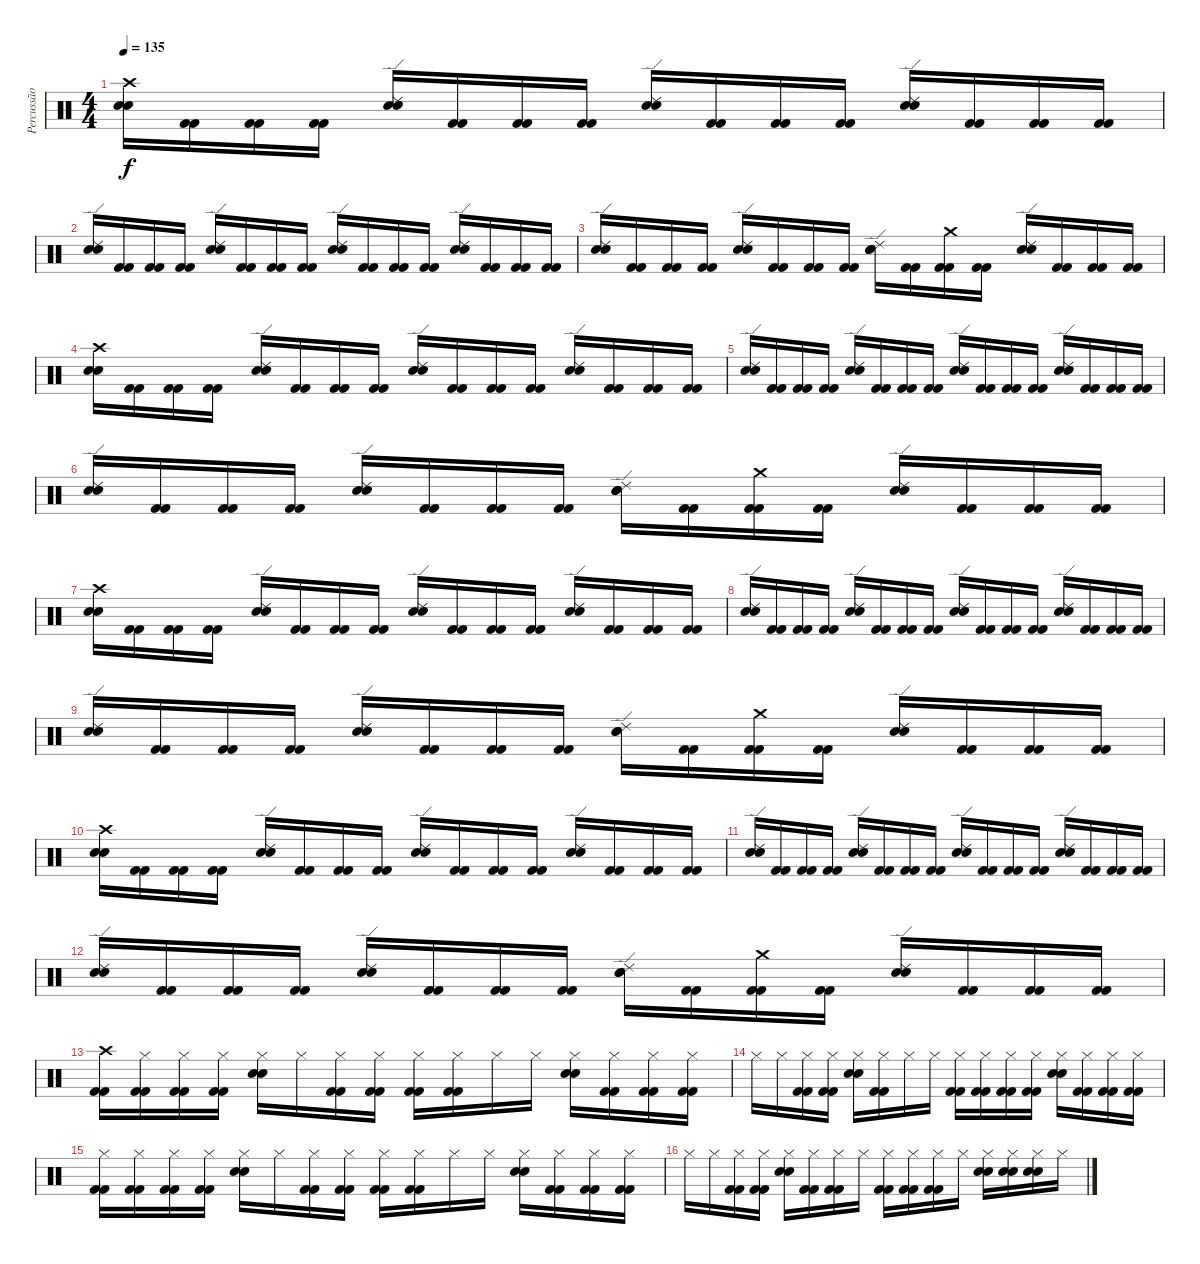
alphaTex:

\track ("Percussão" "Percussão") {instrument percussion}
\staff {score}
\articulation defaults
\ts (4 4)
\tempo 135
\clef neutral
\ks c
("Crash high (hit)" "Electric Snare (hit)" "Electric Snare (hit)").16{dy f} ("Kick (hit) 2" "Kick (hit) 2").16 ("Kick (hit) 2" "Kick (hit) 2").16 ("Kick (hit) 2" "Kick (hit) 2").16 ("Ride (edge) 2" "Electric Snare (hit)" "Electric Snare (hit)").16 ("Kick (hit) 2" "Kick (hit) 2").16 ("Kick (hit) 2" "Kick (hit) 2").16 ("Kick (hit) 2" "Kick (hit) 2").16 ("Ride (edge) 2" "Electric Snare (hit)" "Electric Snare (hit)").16 ("Kick (hit) 2" "Kick (hit) 2").16 ("Kick (hit) 2" "Kick (hit) 2").16 ("Kick (hit) 2" "Kick (hit) 2").16 ("Ride (edge) 2" "Electric Snare (hit)" "Electric Snare (hit)").16 ("Kick (hit) 2" "Kick (hit) 2").16 ("Kick (hit) 2" "Kick (hit) 2").16 ("Kick (hit) 2" "Kick (hit) 2").16 |
("Ride (edge) 2" "Electric Snare (hit)" "Electric Snare (hit)").16 ("Kick (hit) 2" "Kick (hit) 2").16 ("Kick (hit) 2" "Kick (hit) 2").16 ("Kick (hit) 2" "Kick (hit) 2").16 ("Ride (edge) 2" "Electric Snare (hit)" "Electric Snare (hit)").16 ("Kick (hit) 2" "Kick (hit) 2").16 ("Kick (hit) 2" "Kick (hit) 2").16 ("Kick (hit) 2" "Kick (hit) 2").16 ("Ride (edge) 2" "Electric Snare (hit)" "Electric Snare (hit)").16 ("Kick (hit) 2" "Kick (hit) 2").16 ("Kick (hit) 2" "Kick (hit) 2").16 ("Kick (hit) 2" "Kick (hit) 2").16 ("Ride (edge) 2" "Electric Snare (hit)" "Electric Snare (hit)").16 ("Kick (hit) 2" "Kick (hit) 2").16 ("Kick (hit) 2" "Kick (hit) 2").16 ("Kick (hit) 2" "Kick (hit) 2").16 |
("Ride (edge) 2" "Electric Snare (hit)" "Electric Snare (hit)").16 ("Kick (hit) 2" "Kick (hit) 2").16 ("Kick (hit) 2" "Kick (hit) 2").16 ("Kick (hit) 2" "Kick (hit) 2").16 ("Ride (edge) 2" "Electric Snare (hit)" "Electric Snare (hit)").16 ("Kick (hit) 2" "Kick (hit) 2").16 ("Kick (hit) 2" "Kick (hit) 2").16 ("Kick (hit) 2" "Kick (hit) 2").16 ("Ride (edge) 2" "Electric Snare (hit)" "Electric Snare (hit)").16 ("Kick (hit) 2" "Kick (hit) 2").16 ("Crash medium (hit)" "Kick (hit) 2" "Kick (hit) 2").16 ("Kick (hit) 2" "Kick (hit) 2").16 ("Ride (edge) 2" "Electric Snare (hit)" "Electric Snare (hit)").16 ("Kick (hit) 2" "Kick (hit) 2").16 ("Kick (hit) 2" "Kick (hit) 2").16 ("Kick (hit) 2" "Kick (hit) 2").16 |
("Crash high (hit)" "Electric Snare (hit)" "Electric Snare (hit)").16 ("Kick (hit) 2" "Kick (hit) 2").16 ("Kick (hit) 2" "Kick (hit) 2").16 ("Kick (hit) 2" "Kick (hit) 2").16 ("Ride (edge) 2" "Electric Snare (hit)" "Electric Snare (hit)").16 ("Kick (hit) 2" "Kick (hit) 2").16 ("Kick (hit) 2" "Kick (hit) 2").16 ("Kick (hit) 2" "Kick (hit) 2").16 ("Ride (edge) 2" "Electric Snare (hit)" "Electric Snare (hit)").16 ("Kick (hit) 2" "Kick (hit) 2").16 ("Kick (hit) 2" "Kick (hit) 2").16 ("Kick (hit) 2" "Kick (hit) 2").16 ("Ride (edge) 2" "Electric Snare (hit)" "Electric Snare (hit)").16 ("Kick (hit) 2" "Kick (hit) 2").16 ("Kick (hit) 2" "Kick (hit) 2").16 ("Kick (hit) 2" "Kick (hit) 2").16 |
("Ride (edge) 2" "Electric Snare (hit)" "Electric Snare (hit)").16 ("Kick (hit) 2" "Kick (hit) 2").16 ("Kick (hit) 2" "Kick (hit) 2").16 ("Kick (hit) 2" "Kick (hit) 2").16 ("Ride (edge) 2" "Electric Snare (hit)" "Electric Snare (hit)").16 ("Kick (hit) 2" "Kick (hit) 2").16 ("Kick (hit) 2" "Kick (hit) 2").16 ("Kick (hit) 2" "Kick (hit) 2").16 ("Ride (edge) 2" "Electric Snare (hit)" "Electric Snare (hit)").16 ("Kick (hit) 2" "Kick (hit) 2").16 ("Kick (hit) 2" "Kick (hit) 2").16 ("Kick (hit) 2" "Kick (hit) 2").16 ("Ride (edge) 2" "Electric Snare (hit)" "Electric Snare (hit)").16 ("Kick (hit) 2" "Kick (hit) 2").16 ("Kick (hit) 2" "Kick (hit) 2").16 ("Kick (hit) 2" "Kick (hit) 2").16 |
("Ride (edge) 2" "Electric Snare (hit)" "Electric Snare (hit)").16 ("Kick (hit) 2" "Kick (hit) 2").16 ("Kick (hit) 2" "Kick (hit) 2").16 ("Kick (hit) 2" "Kick (hit) 2").16 ("Ride (edge) 2" "Electric Snare (hit)" "Electric Snare (hit)").16 ("Kick (hit) 2" "Kick (hit) 2").16 ("Kick (hit) 2" "Kick (hit) 2").16 ("Kick (hit) 2" "Kick (hit) 2").16 ("Ride (edge) 2" "Electric Snare (hit)" "Electric Snare (hit)").16 ("Kick (hit) 2" "Kick (hit) 2").16 ("Crash medium (hit)" "Kick (hit) 2" "Kick (hit) 2").16 ("Kick (hit) 2" "Kick (hit) 2").16 ("Ride (edge) 2" "Electric Snare (hit)" "Electric Snare (hit)").16 ("Kick (hit) 2" "Kick (hit) 2").16 ("Kick (hit) 2" "Kick (hit) 2").16 ("Kick (hit) 2" "Kick (hit) 2").16 |
("Crash high (hit)" "Electric Snare (hit)" "Electric Snare (hit)").16 ("Kick (hit) 2" "Kick (hit) 2").16 ("Kick (hit) 2" "Kick (hit) 2").16 ("Kick (hit) 2" "Kick (hit) 2").16 ("Ride (edge) 2" "Electric Snare (hit)" "Electric Snare (hit)").16 ("Kick (hit) 2" "Kick (hit) 2").16 ("Kick (hit) 2" "Kick (hit) 2").16 ("Kick (hit) 2" "Kick (hit) 2").16 ("Ride (edge) 2" "Electric Snare (hit)" "Electric Snare (hit)").16 ("Kick (hit) 2" "Kick (hit) 2").16 ("Kick (hit) 2" "Kick (hit) 2").16 ("Kick (hit) 2" "Kick (hit) 2").16 ("Ride (edge) 2" "Electric Snare (hit)" "Electric Snare (hit)").16 ("Kick (hit) 2" "Kick (hit) 2").16 ("Kick (hit) 2" "Kick (hit) 2").16 ("Kick (hit) 2" "Kick (hit) 2").16 |
("Ride (edge) 2" "Electric Snare (hit)" "Electric Snare (hit)").16 ("Kick (hit) 2" "Kick (hit) 2").16 ("Kick (hit) 2" "Kick (hit) 2").16 ("Kick (hit) 2" "Kick (hit) 2").16 ("Ride (edge) 2" "Electric Snare (hit)" "Electric Snare (hit)").16 ("Kick (hit) 2" "Kick (hit) 2").16 ("Kick (hit) 2" "Kick (hit) 2").16 ("Kick (hit) 2" "Kick (hit) 2").16 ("Ride (edge) 2" "Electric Snare (hit)" "Electric Snare (hit)").16 ("Kick (hit) 2" "Kick (hit) 2").16 ("Kick (hit) 2" "Kick (hit) 2").16 ("Kick (hit) 2" "Kick (hit) 2").16 ("Ride (edge) 2" "Electric Snare (hit)" "Electric Snare (hit)").16 ("Kick (hit) 2" "Kick (hit) 2").16 ("Kick (hit) 2" "Kick (hit) 2").16 ("Kick (hit) 2" "Kick (hit) 2").16 |
("Ride (edge) 2" "Electric Snare (hit)" "Electric Snare (hit)").16 ("Kick (hit) 2" "Kick (hit) 2").16 ("Kick (hit) 2" "Kick (hit) 2").16 ("Kick (hit) 2" "Kick (hit) 2").16 ("Ride (edge) 2" "Electric Snare (hit)" "Electric Snare (hit)").16 ("Kick (hit) 2" "Kick (hit) 2").16 ("Kick (hit) 2" "Kick (hit) 2").16 ("Kick (hit) 2" "Kick (hit) 2").16 ("Ride (edge) 2" "Electric Snare (hit)" "Electric Snare (hit)").16 ("Kick (hit) 2" "Kick (hit) 2").16 ("Crash medium (hit)" "Kick (hit) 2" "Kick (hit) 2").16 ("Kick (hit) 2" "Kick (hit) 2").16 ("Ride (edge) 2" "Electric Snare (hit)" "Electric Snare (hit)").16 ("Kick (hit) 2" "Kick (hit) 2").16 ("Kick (hit) 2" "Kick (hit) 2").16 ("Kick (hit) 2" "Kick (hit) 2").16 |
("Crash high (hit)" "Electric Snare (hit)" "Electric Snare (hit)").16 ("Kick (hit) 2" "Kick (hit) 2").16 ("Kick (hit) 2" "Kick (hit) 2").16 ("Kick (hit) 2" "Kick (hit) 2").16 ("Ride (edge) 2" "Electric Snare (hit)" "Electric Snare (hit)").16 ("Kick (hit) 2" "Kick (hit) 2").16 ("Kick (hit) 2" "Kick (hit) 2").16 ("Kick (hit) 2" "Kick (hit) 2").16 ("Ride (edge) 2" "Electric Snare (hit)" "Electric Snare (hit)").16 ("Kick (hit) 2" "Kick (hit) 2").16 ("Kick (hit) 2" "Kick (hit) 2").16 ("Kick (hit) 2" "Kick (hit) 2").16 ("Ride (edge) 2" "Electric Snare (hit)" "Electric Snare (hit)").16 ("Kick (hit) 2" "Kick (hit) 2").16 ("Kick (hit) 2" "Kick (hit) 2").16 ("Kick (hit) 2" "Kick (hit) 2").16 |
("Ride (edge) 2" "Electric Snare (hit)" "Electric Snare (hit)").16 ("Kick (hit) 2" "Kick (hit) 2").16 ("Kick (hit) 2" "Kick (hit) 2").16 ("Kick (hit) 2" "Kick (hit) 2").16 ("Ride (edge) 2" "Electric Snare (hit)" "Electric Snare (hit)").16 ("Kick (hit) 2" "Kick (hit) 2").16 ("Kick (hit) 2" "Kick (hit) 2").16 ("Kick (hit) 2" "Kick (hit) 2").16 ("Ride (edge) 2" "Electric Snare (hit)" "Electric Snare (hit)").16 ("Kick (hit) 2" "Kick (hit) 2").16 ("Kick (hit) 2" "Kick (hit) 2").16 ("Kick (hit) 2" "Kick (hit) 2").16 ("Ride (edge) 2" "Electric Snare (hit)" "Electric Snare (hit)").16 ("Kick (hit) 2" "Kick (hit) 2").16 ("Kick (hit) 2" "Kick (hit) 2").16 ("Kick (hit) 2" "Kick (hit) 2").16 |
("Ride (edge) 2" "Electric Snare (hit)" "Electric Snare (hit)").16 ("Kick (hit) 2" "Kick (hit) 2").16 ("Kick (hit) 2" "Kick (hit) 2").16 ("Kick (hit) 2" "Kick (hit) 2").16 ("Ride (edge) 2" "Electric Snare (hit)" "Electric Snare (hit)").16 ("Kick (hit) 2" "Kick (hit) 2").16 ("Kick (hit) 2" "Kick (hit) 2").16 ("Kick (hit) 2" "Kick (hit) 2").16 ("Ride (edge) 2" "Electric Snare (hit)" "Electric Snare (hit)").16 ("Kick (hit) 2" "Kick (hit) 2").16 ("Crash medium (hit)" "Kick (hit) 2" "Kick (hit) 2").16 ("Kick (hit) 2" "Kick (hit) 2").16 ("Ride (edge) 2" "Electric Snare (hit)" "Electric Snare (hit)").16 ("Kick (hit) 2" "Kick (hit) 2").16 ("Kick (hit) 2" "Kick (hit) 2").16 ("Kick (hit) 2" "Kick (hit) 2").16 |
("Crash high (hit)" "Kick (hit) 2" "Kick (hit) 2").16 ("Hi-Hat (closed)" "Kick (hit) 2" "Kick (hit) 2").16 ("Hi-Hat (closed)" "Kick (hit) 2" "Kick (hit) 2").16 ("Hi-Hat (closed)" "Kick (hit) 2" "Kick (hit) 2").16 ("Hi-Hat (closed)" "Electric Snare (hit)" "Electric Snare (hit)").16 "Hi-Hat (closed)".16 ("Hi-Hat (closed)" "Kick (hit) 2" "Kick (hit) 2").16 ("Hi-Hat (closed)" "Kick (hit) 2" "Kick (hit) 2").16 ("Hi-Hat (closed)" "Kick (hit) 2" "Kick (hit) 2").16 ("Hi-Hat (closed)" "Kick (hit) 2" "Kick (hit) 2").16 "Hi-Hat (closed)".16 "Hi-Hat (closed)".16 ("Hi-Hat (closed)" "Electric Snare (hit)" "Electric Snare (hit)").16 ("Hi-Hat (closed)" "Kick (hit) 2" "Kick (hit) 2").16 ("Hi-Hat (closed)" "Kick (hit) 2" "Kick (hit) 2").16 ("Hi-Hat (closed)" "Kick (hit) 2" "Kick (hit) 2").16 |
"Hi-Hat (closed)".16 "Hi-Hat (closed)".16 ("Hi-Hat (closed)" "Kick (hit) 2" "Kick (hit) 2").16 ("Hi-Hat (closed)" "Kick (hit) 2" "Kick (hit) 2").16 ("Hi-Hat (closed)" "Electric Snare (hit)" "Electric Snare (hit)").16 ("Hi-Hat (closed)" "Kick (hit) 2" "Kick (hit) 2").16 "Hi-Hat (closed)".16 "Hi-Hat (closed)".16 ("Hi-Hat (closed)" "Kick (hit) 2" "Kick (hit) 2").16 ("Hi-Hat (closed)" "Kick (hit) 2" "Kick (hit) 2").16 ("Hi-Hat (closed)" "Kick (hit) 2" "Kick (hit) 2").16 ("Hi-Hat (closed)" "Kick (hit) 2" "Kick (hit) 2").16 ("Hi-Hat (closed)" "Electric Snare (hit)" "Electric Snare (hit)").16 ("Hi-Hat (closed)" "Kick (hit) 2" "Kick (hit) 2").16 ("Hi-Hat (closed)" "Kick (hit) 2" "Kick (hit) 2").16 ("Hi-Hat (closed)" "Kick (hit) 2" "Kick (hit) 2").16 |
("Hi-Hat (closed)" "Kick (hit) 2" "Kick (hit) 2").16 ("Hi-Hat (closed)" "Kick (hit) 2" "Kick (hit) 2").16 ("Hi-Hat (closed)" "Kick (hit) 2" "Kick (hit) 2").16 ("Hi-Hat (closed)" "Kick (hit) 2" "Kick (hit) 2").16 ("Hi-Hat (closed)" "Electric Snare (hit)" "Electric Snare (hit)").16 "Hi-Hat (closed)".16 ("Hi-Hat (closed)" "Kick (hit) 2" "Kick (hit) 2").16 ("Hi-Hat (closed)" "Kick (hit) 2" "Kick (hit) 2").16 ("Hi-Hat (closed)" "Kick (hit) 2" "Kick (hit) 2").16 ("Hi-Hat (closed)" "Kick (hit) 2" "Kick (hit) 2").16 "Hi-Hat (closed)".16 "Hi-Hat (closed)".16 ("Hi-Hat (closed)" "Electric Snare (hit)" "Electric Snare (hit)").16 ("Hi-Hat (closed)" "Kick (hit) 2" "Kick (hit) 2").16 ("Hi-Hat (closed)" "Kick (hit) 2" "Kick (hit) 2").16 ("Hi-Hat (closed)" "Kick (hit) 2" "Kick (hit) 2").16 |
"Hi-Hat (closed)".16 "Hi-Hat (closed)".16 ("Hi-Hat (closed)" "Kick (hit) 2" "Kick (hit) 2").16 ("Hi-Hat (closed)" "Kick (hit) 2" "Kick (hit) 2").16 ("Hi-Hat (closed)" "Electric Snare (hit)" "Electric Snare (hit)").16 ("Hi-Hat (closed)" "Kick (hit) 2" "Kick (hit) 2").16 ("Hi-Hat (closed)" "Kick (hit) 2" "Kick (hit) 2").16 "Hi-Hat (closed)".16 ("Hi-Hat (closed)" "Kick (hit) 2" "Kick (hit) 2").16 ("Hi-Hat (closed)" "Kick (hit) 2" "Kick (hit) 2").16 ("Hi-Hat (closed)" "Kick (hit) 2" "Kick (hit) 2").16 "Hi-Hat (closed)".16 ("Hi-Hat (closed)" "Electric Snare (hit)" "Electric Snare (hit)").16 ("Hi-Hat (closed)" "Electric Snare (hit)" "Electric Snare (hit)").16 ("Hi-Hat (closed)" "Electric Snare (hit)" "Electric Snare (hit)").16 "Hi-Hat (closed)".16
